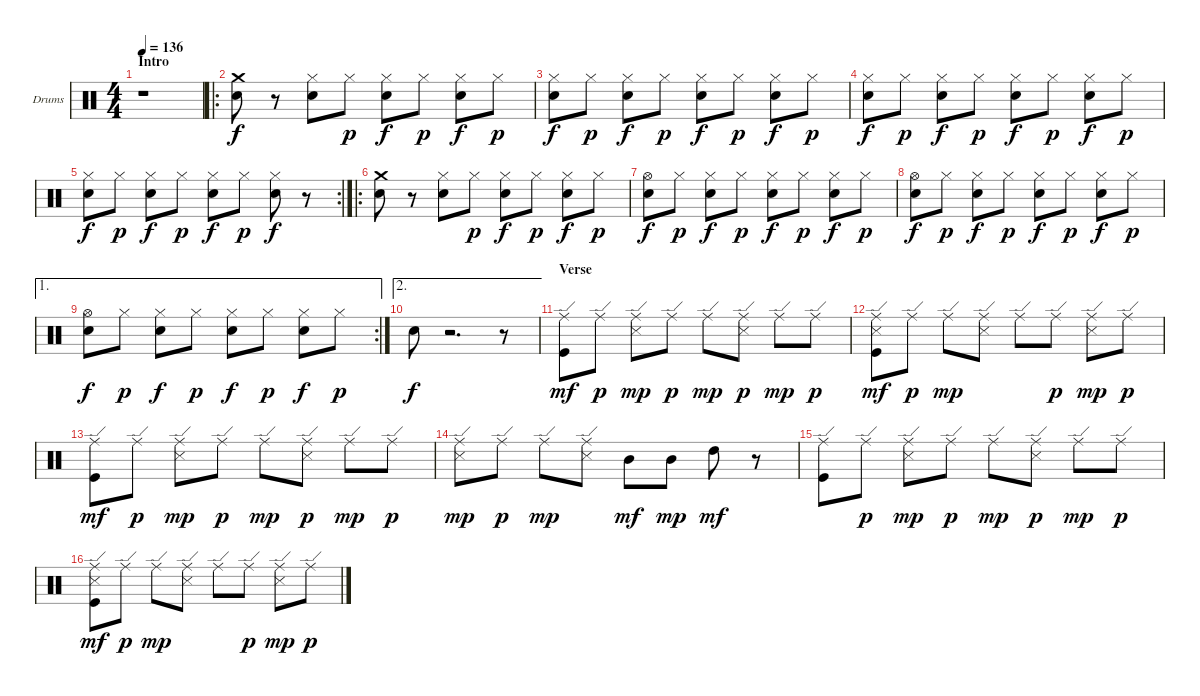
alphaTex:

\bracketExtendMode groupsimilarinstruments
\firstSystemTrackNameOrientation horizontal
\otherSystemsTrackNameOrientation horizontal
\track ("Drumkit" "Drums") {instrument percussion}
\staff {score}
\articulation defaults
\ts (4 4)
\section ("" "Intro")
\tempo 136
\clef neutral
\ks c
r.1{dy f} |
\ro
("Snare (hit) 2" "Crash medium (hit)").8 r.8 ("Snare (hit) 2" "Hi-Hat (closed)").8 "Hi-Hat (closed)".8{dy p} ("Snare (hit) 2" "Hi-Hat (closed)").8{dy f} "Hi-Hat (closed)".8{dy p} ("Snare (hit) 2" "Hi-Hat (closed)").8{dy f} "Hi-Hat (closed)".8{dy p} |
("Snare (hit) 2" "Hi-Hat (closed)").8{dy f} "Hi-Hat (closed)".8{dy p} ("Snare (hit) 2" "Hi-Hat (closed)").8{dy f} "Hi-Hat (closed)".8{dy p} ("Snare (hit) 2" "Hi-Hat (closed)").8{dy f} "Hi-Hat (closed)".8{dy p} ("Snare (hit) 2" "Hi-Hat (closed)").8{dy f} "Hi-Hat (closed)".8{dy p} |
("Snare (hit) 2" "Hi-Hat (closed)").8{dy f} "Hi-Hat (closed)".8{dy p} ("Snare (hit) 2" "Hi-Hat (closed)").8{dy f} "Hi-Hat (closed)".8{dy p} ("Snare (hit) 2" "Hi-Hat (closed)").8{dy f} "Hi-Hat (closed)".8{dy p} ("Snare (hit) 2" "Hi-Hat (closed)").8{dy f} "Hi-Hat (closed)".8{dy p} |
\rc 2
("Snare (hit) 2" "Hi-Hat (closed)").8{dy f} "Hi-Hat (closed)".8{dy p} ("Snare (hit) 2" "Hi-Hat (closed)").8{dy f} "Hi-Hat (closed)".8{dy p} ("Snare (hit) 2" "Hi-Hat (closed)").8{dy f} "Hi-Hat (closed)".8{dy p} ("Snare (hit) 2" "Hi-Hat (closed)").8{dy f} r.8 |
\ro
("Snare (hit) 2" "Crash medium (hit)").8 r.8 ("Snare (hit) 2" "Hi-Hat (closed)").8 "Hi-Hat (closed)".8{dy p} ("Snare (hit) 2" "Hi-Hat (closed)").8{dy f} "Hi-Hat (closed)".8{dy p} ("Snare (hit) 2" "Hi-Hat (closed)").8{dy f} "Hi-Hat (closed)".8{dy p} |
("Snare (hit) 2" "Hi-Hat (open)").8{dy f} "Hi-Hat (closed)".8{dy p} ("Snare (hit) 2" "Hi-Hat (closed)").8{dy f} "Hi-Hat (closed)".8{dy p} ("Snare (hit) 2" "Hi-Hat (closed)").8{dy f} "Hi-Hat (closed)".8{dy p} ("Snare (hit) 2" "Hi-Hat (closed)").8{dy f} "Hi-Hat (closed)".8{dy p} |
("Snare (hit) 2" "Hi-Hat (open)").8{dy f} "Hi-Hat (closed)".8{dy p} ("Snare (hit) 2" "Hi-Hat (closed)").8{dy f} "Hi-Hat (closed)".8{dy p} ("Snare (hit) 2" "Hi-Hat (closed)").8{dy f} "Hi-Hat (closed)".8{dy p} ("Snare (hit) 2" "Hi-Hat (closed)").8{dy f} "Hi-Hat (closed)".8{dy p} |
\ae 1
\rc 2
("Snare (hit) 2" "Hi-Hat (open)").8{dy f} "Hi-Hat (closed)".8{dy p} ("Snare (hit) 2" "Hi-Hat (closed)").8{dy f} "Hi-Hat (closed)".8{dy p} ("Snare (hit) 2" "Hi-Hat (closed)").8{dy f} "Hi-Hat (closed)".8{dy p} ("Snare (hit) 2" "Hi-Hat (closed)").8{dy f} "Hi-Hat (closed)".8{dy p} |
\ae 2 "Snare (hit) 2".8{dy f}
r.2{d} r.8 |
\section ("" "Verse")
("Kick (hit)" "Ride (edge)").8{dy mf} "Ride (edge)".8{dy p} ("Snare (side stick) 3" "Ride (edge)").8{dy mp} "Ride (edge)".8{dy p} "Ride (edge)".8{dy mp} ("Snare (side stick) 3" "Ride (edge)").8{dy p} "Ride (edge)".8{dy mp} "Ride (edge)".8{dy p} |
("Kick (hit)" "Snare (side stick) 3" "Ride (edge)").8{dy mf} "Ride (edge)".8{dy p} "Ride (edge)".8{dy mp} ("Snare (side stick) 3" "Ride (edge)").8 "Ride (edge)".8 "Ride (edge)".8{dy p} ("Snare (side stick) 3" "Ride (edge)").8{dy mp} "Ride (edge)".8{dy p} |
("Kick (hit)" "Ride (edge)").8{dy mf} "Ride (edge)".8{dy p} ("Snare (side stick) 3" "Ride (edge)").8{dy mp} "Ride (edge)".8{dy p} "Ride (edge)".8{dy mp} ("Snare (side stick) 3" "Ride (edge)").8{dy p} "Ride (edge)".8{dy mp} "Ride (edge)".8{dy p} |
("Snare (side stick) 3" "Ride (edge)").8{dy mp} "Ride (edge)".8{dy p} "Ride (edge)".8{dy mp} ("Snare (side stick) 3" "Ride (edge)").8 "Mid Tom (hit)".8{dy mf} "Mid Tom (hit)".8{dy mp} "High Tom (hit)".8{dy mf} r.8 |
("Kick (hit)" "Ride (edge)").8 "Ride (edge)".8{dy p} ("Snare (side stick) 3" "Ride (edge)").8{dy mp} "Ride (edge)".8{dy p} "Ride (edge)".8{dy mp} ("Snare (side stick) 3" "Ride (edge)").8{dy p} "Ride (edge)".8{dy mp} "Ride (edge)".8{dy p} |
("Kick (hit)" "Snare (side stick) 3" "Ride (edge)").8{dy mf} "Ride (edge)".8{dy p} "Ride (edge)".8{dy mp} ("Snare (side stick) 3" "Ride (edge)").8 "Ride (edge)".8 "Ride (edge)".8{dy p} ("Snare (side stick) 3" "Ride (edge)").8{dy mp} "Ride (edge)".8{dy p}
